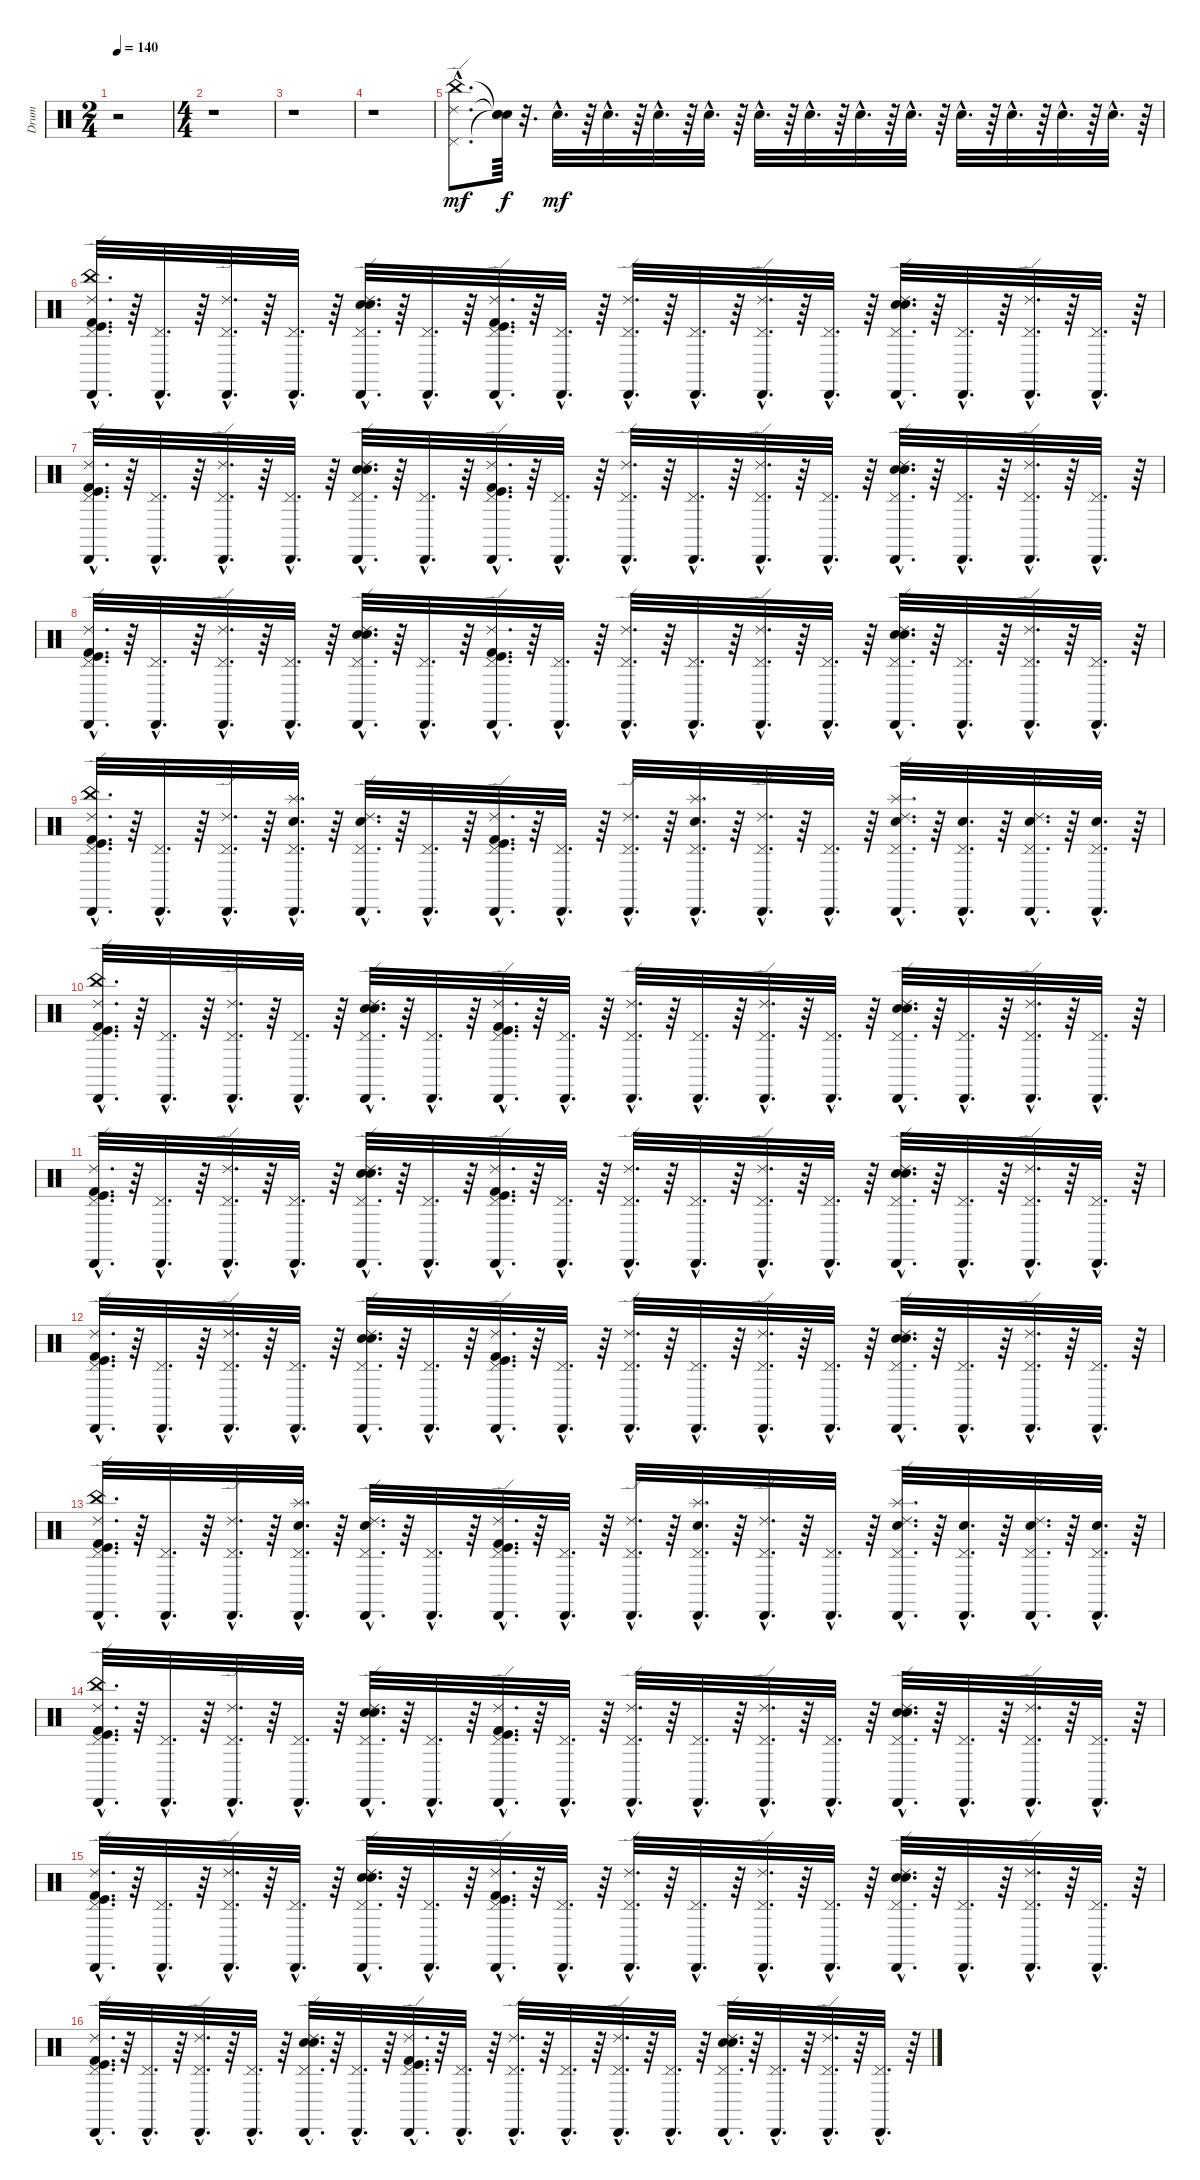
\track ("Drum" "Drum") {instrument percussion}
\staff {score}
\articulation defaults
\ts (2 4)
\tempo 140
\clef neutral
\ks c
r.2{dy mf} |
\ts (4 4)
r.1 |
r.1 |
r.1 |
("China (hit)"{hac} "Ride (edge) 2"{hac} "Pedal Hi-Hat (hit)"{hac}).8{d} ("Snare (hit)"{t} "Snare (hit)"{t} "Snare (hit)"{t}).64{dy f} r.32{d} "Snare (hit) 2"{hac}.32{d dy mf} r.64 "Snare (hit) 2"{hac}.32{d} r.64 "Snare (hit) 2"{hac}.32{d} r.64 "Snare (hit) 2"{hac}.32{d} r.64 "Snare (hit) 2"{hac}.32{d} r.64 "Snare (hit) 2"{hac}.32{d} r.64 "Snare (hit) 2"{hac}.32{d} r.64 "Snare (hit) 2"{hac}.32{d} r.64 "Snare (hit) 2"{hac}.32{d} r.64 "Snare (hit) 2"{hac}.32{d} r.64 "Snare (hit) 2"{hac}.32{d} r.64 "Snare (hit) 2"{hac}.32{d} r.64 |
("Cabasa (hit)"{hac} "Ride (edge) 2"{hac} "Pedal Hi-Hat (hit)"{hac} "Kick (hit)"{hac} "Kick (hit) 2"{hac} "China (hit)"{hac}).32{d} r.64 ("Pedal Hi-Hat (hit)"{hac} "Cabasa (hit)"{hac}).32{d} r.64 ("Ride (edge) 2"{hac} "Pedal Hi-Hat (hit)"{hac} "Cabasa (hit)"{hac}).32{d} r.64 ("Cabasa (hit)"{hac} "Pedal Hi-Hat (hit)"{hac}).32{d} r.64 ("Ride (edge) 2"{hac} "Cabasa (hit)"{hac} "Electric Snare (hit)"{hac} "Snare (hit) 2"{hac} "Pedal Hi-Hat (hit)"{hac}).32{d} r.64 ("Pedal Hi-Hat (hit)"{hac} "Cabasa (hit)"{hac}).32{d} r.64 ("Pedal Hi-Hat (hit)"{hac} "Kick (hit) 2"{hac} "Ride (edge) 2"{hac} "Cabasa (hit)"{hac} "Kick (hit)"{hac}).32{d} r.64 ("Pedal Hi-Hat (hit)"{hac} "Cabasa (hit)"{hac}).32{d} r.64 ("Cabasa (hit)"{hac} "Pedal Hi-Hat (hit)"{hac} "Ride (edge) 2"{hac}).32{d} r.64 ("Cabasa (hit)"{hac} "Pedal Hi-Hat (hit)"{hac}).32{d} r.64 ("Ride (edge) 2"{hac} "Pedal Hi-Hat (hit)"{hac} "Cabasa (hit)"{hac}).32{d} r.64 ("Pedal Hi-Hat (hit)"{hac} "Cabasa (hit)"{hac}).32{d} r.64 ("Cabasa (hit)"{hac} "Ride (edge) 2"{hac} "Snare (hit) 2"{hac} "Electric Snare (hit)"{hac} "Pedal Hi-Hat (hit)"{hac}).32{d} r.64 ("Pedal Hi-Hat (hit)"{hac} "Cabasa (hit)"{hac}).32{d} r.64 ("Ride (edge) 2"{hac} "Pedal Hi-Hat (hit)"{hac} "Cabasa (hit)"{hac}).32{d} r.64 ("Pedal Hi-Hat (hit)"{hac} "Cabasa (hit)"{hac}).32{d} r.64 |
("Pedal Hi-Hat (hit)"{hac} "Cabasa (hit)"{hac} "Ride (edge) 2"{hac} "Kick (hit)"{hac} "Kick (hit) 2"{hac}).32{d} r.64 ("Pedal Hi-Hat (hit)"{hac} "Cabasa (hit)"{hac}).32{d} r.64 ("Pedal Hi-Hat (hit)"{hac} "Cabasa (hit)"{hac} "Ride (edge) 2"{hac}).32{d} r.64 ("Pedal Hi-Hat (hit)"{hac} "Cabasa (hit)"{hac}).32{d} r.64 ("Pedal Hi-Hat (hit)"{hac} "Cabasa (hit)"{hac} "Ride (edge) 2"{hac} "Electric Snare (hit)"{hac} "Snare (hit) 2"{hac}).32{d} r.64 ("Pedal Hi-Hat (hit)"{hac} "Cabasa (hit)"{hac}).32{d} r.64 ("Pedal Hi-Hat (hit)"{hac} "Cabasa (hit)"{hac} "Ride (edge) 2"{hac} "Kick (hit) 2"{hac} "Kick (hit)"{hac}).32{d} r.64 ("Pedal Hi-Hat (hit)"{hac} "Cabasa (hit)"{hac}).32{d} r.64 ("Pedal Hi-Hat (hit)"{hac} "Cabasa (hit)"{hac} "Ride (edge) 2"{hac}).32{d} r.64 ("Pedal Hi-Hat (hit)"{hac} "Cabasa (hit)"{hac}).32{d} r.64 ("Pedal Hi-Hat (hit)"{hac} "Cabasa (hit)"{hac} "Ride (edge) 2"{hac}).32{d} r.64 ("Pedal Hi-Hat (hit)"{hac} "Cabasa (hit)"{hac}).32{d} r.64 ("Pedal Hi-Hat (hit)"{hac} "Cabasa (hit)"{hac} "Ride (edge) 2"{hac} "Snare (hit) 2"{hac} "Electric Snare (hit)"{hac}).32{d} r.64 ("Pedal Hi-Hat (hit)"{hac} "Cabasa (hit)"{hac}).32{d} r.64 ("Pedal Hi-Hat (hit)"{hac} "Cabasa (hit)"{hac} "Ride (edge) 2"{hac}).32{d} r.64 ("Pedal Hi-Hat (hit)"{hac} "Cabasa (hit)"{hac}).32{d} r.64 |
("Kick (hit) 2"{hac} "Kick (hit)"{hac} "Ride (edge) 2"{hac} "Cabasa (hit)"{hac} "Pedal Hi-Hat (hit)"{hac}).32{d} r.64 ("Cabasa (hit)"{hac} "Pedal Hi-Hat (hit)"{hac}).32{d} r.64 ("Ride (edge) 2"{hac} "Cabasa (hit)"{hac} "Pedal Hi-Hat (hit)"{hac}).32{d} r.64 ("Cabasa (hit)"{hac} "Pedal Hi-Hat (hit)"{hac}).32{d} r.64 ("Snare (hit) 2"{hac} "Electric Snare (hit)"{hac} "Ride (edge) 2"{hac} "Cabasa (hit)"{hac} "Pedal Hi-Hat (hit)"{hac}).32{d} r.64 ("Cabasa (hit)"{hac} "Pedal Hi-Hat (hit)"{hac}).32{d} r.64 ("Kick (hit)"{hac} "Kick (hit) 2"{hac} "Ride (edge) 2"{hac} "Cabasa (hit)"{hac} "Pedal Hi-Hat (hit)"{hac}).32{d} r.64 ("Cabasa (hit)"{hac} "Pedal Hi-Hat (hit)"{hac}).32{d} r.64 ("Ride (edge) 2"{hac} "Cabasa (hit)"{hac} "Pedal Hi-Hat (hit)"{hac}).32{d} r.64 ("Cabasa (hit)"{hac} "Pedal Hi-Hat (hit)"{hac}).32{d} r.64 ("Ride (edge) 2"{hac} "Cabasa (hit)"{hac} "Pedal Hi-Hat (hit)"{hac}).32{d} r.64 ("Cabasa (hit)"{hac} "Pedal Hi-Hat (hit)"{hac}).32{d} r.64 ("Electric Snare (hit)"{hac} "Snare (hit) 2"{hac} "Ride (edge) 2"{hac} "Cabasa (hit)"{hac} "Pedal Hi-Hat (hit)"{hac}).32{d} r.64 ("Cabasa (hit)"{hac} "Pedal Hi-Hat (hit)"{hac}).32{d} r.64 ("Ride (edge) 2"{hac} "Cabasa (hit)"{hac} "Pedal Hi-Hat (hit)"{hac}).32{d} r.64 ("Cabasa (hit)"{hac} "Pedal Hi-Hat (hit)"{hac}).32{d} r.64 |
("China (hit)"{hac} "Cabasa (hit)"{hac} "Ride (edge) 2"{hac} "Kick (hit) 2"{hac} "Kick (hit)"{hac} "Pedal Hi-Hat (hit)"{hac}).32{d} r.64 ("Pedal Hi-Hat (hit)"{hac} "Cabasa (hit)"{hac}).32{d} r.64 ("Ride (edge) 2"{hac} "Cabasa (hit)"{hac} "Pedal Hi-Hat (hit)"{hac}).32{d} r.64 ("Splash (hit)"{hac} "Snare (hit) 2"{hac} "Pedal Hi-Hat (hit)"{hac} "Cabasa (hit)"{hac}).32{d} r.64 ("Snare (hit) 2"{hac} "Ride (edge) 2"{hac} "Cabasa (hit)"{hac} "Pedal Hi-Hat (hit)"{hac}).32{d} r.64 ("Cabasa (hit)"{hac} "Pedal Hi-Hat (hit)"{hac}).32{d} r.64 ("Ride (edge) 2"{hac} "Cabasa (hit)"{hac} "Kick (hit)"{hac} "Kick (hit) 2"{hac} "Pedal Hi-Hat (hit)"{hac}).32{d} r.64 ("Pedal Hi-Hat (hit)"{hac} "Cabasa (hit)"{hac}).32{d} r.64 ("Cabasa (hit)"{hac} "Pedal Hi-Hat (hit)"{hac} "Ride (edge) 2"{hac}).32{d} r.64 ("Splash (hit)"{hac} "Snare (hit) 2"{hac} "Pedal Hi-Hat (hit)"{hac} "Cabasa (hit)"{hac}).32{d} r.64 ("Pedal Hi-Hat (hit)"{hac} "Cabasa (hit)"{hac} "Ride (edge) 2"{hac}).32{d} r.64 ("Pedal Hi-Hat (hit)"{hac} "Cabasa (hit)"{hac}).32{d} r.64 ("Splash (hit)"{hac} "Snare (hit) 2"{hac} "Ride (edge) 2"{hac} "Cabasa (hit)"{hac} "Pedal Hi-Hat (hit)"{hac}).32{d} r.64 ("Snare (hit) 2"{hac} "Pedal Hi-Hat (hit)"{hac} "Cabasa (hit)"{hac}).32{d} r.64 ("Snare (hit) 2"{hac} "Ride (edge) 2"{hac} "Cabasa (hit)"{hac} "Pedal Hi-Hat (hit)"{hac}).32{d} r.64 ("Snare (hit) 2"{hac} "Pedal Hi-Hat (hit)"{hac} "Cabasa (hit)"{hac}).32{d} r.64 |
("Cabasa (hit)"{hac} "Pedal Hi-Hat (hit)"{hac} "Kick (hit) 2"{hac} "Ride (edge) 2"{hac} "Kick (hit)"{hac} "China (hit)"{hac}).32{d} r.64 ("Pedal Hi-Hat (hit)"{hac} "Cabasa (hit)"{hac}).32{d} r.64 ("Pedal Hi-Hat (hit)"{hac} "Ride (edge) 2"{hac} "Cabasa (hit)"{hac}).32{d} r.64 ("Pedal Hi-Hat (hit)"{hac} "Cabasa (hit)"{hac}).32{d} r.64 ("Pedal Hi-Hat (hit)"{hac} "Electric Snare (hit)"{hac} "Snare (hit) 2"{hac} "Cabasa (hit)"{hac} "Ride (edge) 2"{hac}).32{d} r.64 ("Pedal Hi-Hat (hit)"{hac} "Cabasa (hit)"{hac}).32{d} r.64 ("Cabasa (hit)"{hac} "Pedal Hi-Hat (hit)"{hac} "Ride (edge) 2"{hac} "Kick (hit)"{hac} "Kick (hit) 2"{hac}).32{d} r.64 ("Cabasa (hit)"{hac} "Pedal Hi-Hat (hit)"{hac}).32{d} r.64 ("Cabasa (hit)"{hac} "Ride (edge) 2"{hac} "Pedal Hi-Hat (hit)"{hac}).32{d} r.64 ("Pedal Hi-Hat (hit)"{hac} "Cabasa (hit)"{hac}).32{d} r.64 ("Cabasa (hit)"{hac} "Ride (edge) 2"{hac} "Pedal Hi-Hat (hit)"{hac}).32{d} r.64 ("Cabasa (hit)"{hac} "Pedal Hi-Hat (hit)"{hac}).32{d} r.64 ("Cabasa (hit)"{hac} "Ride (edge) 2"{hac} "Electric Snare (hit)"{hac} "Snare (hit) 2"{hac} "Pedal Hi-Hat (hit)"{hac}).32{d} r.64 ("Cabasa (hit)"{hac} "Pedal Hi-Hat (hit)"{hac}).32{d} r.64 ("Ride (edge) 2"{hac} "Pedal Hi-Hat (hit)"{hac} "Cabasa (hit)"{hac}).32{d} r.64 ("Cabasa (hit)"{hac} "Pedal Hi-Hat (hit)"{hac}).32{d} r.64 |
("Kick (hit) 2"{hac} "Kick (hit)"{hac} "Ride (edge) 2"{hac} "Cabasa (hit)"{hac} "Pedal Hi-Hat (hit)"{hac}).32{d} r.64 ("Cabasa (hit)"{hac} "Pedal Hi-Hat (hit)"{hac}).32{d} r.64 ("Ride (edge) 2"{hac} "Cabasa (hit)"{hac} "Pedal Hi-Hat (hit)"{hac}).32{d} r.64 ("Cabasa (hit)"{hac} "Pedal Hi-Hat (hit)"{hac}).32{d} r.64 ("Snare (hit) 2"{hac} "Electric Snare (hit)"{hac} "Ride (edge) 2"{hac} "Cabasa (hit)"{hac} "Pedal Hi-Hat (hit)"{hac}).32{d} r.64 ("Cabasa (hit)"{hac} "Pedal Hi-Hat (hit)"{hac}).32{d} r.64 ("Kick (hit)"{hac} "Kick (hit) 2"{hac} "Ride (edge) 2"{hac} "Cabasa (hit)"{hac} "Pedal Hi-Hat (hit)"{hac}).32{d} r.64 ("Cabasa (hit)"{hac} "Pedal Hi-Hat (hit)"{hac}).32{d} r.64 ("Ride (edge) 2"{hac} "Cabasa (hit)"{hac} "Pedal Hi-Hat (hit)"{hac}).32{d} r.64 ("Cabasa (hit)"{hac} "Pedal Hi-Hat (hit)"{hac}).32{d} r.64 ("Ride (edge) 2"{hac} "Cabasa (hit)"{hac} "Pedal Hi-Hat (hit)"{hac}).32{d} r.64 ("Cabasa (hit)"{hac} "Pedal Hi-Hat (hit)"{hac}).32{d} r.64 ("Electric Snare (hit)"{hac} "Snare (hit) 2"{hac} "Ride (edge) 2"{hac} "Cabasa (hit)"{hac} "Pedal Hi-Hat (hit)"{hac}).32{d} r.64 ("Cabasa (hit)"{hac} "Pedal Hi-Hat (hit)"{hac}).32{d} r.64 ("Ride (edge) 2"{hac} "Cabasa (hit)"{hac} "Pedal Hi-Hat (hit)"{hac}).32{d} r.64 ("Cabasa (hit)"{hac} "Pedal Hi-Hat (hit)"{hac}).32{d} r.64 |
("Pedal Hi-Hat (hit)"{hac} "Cabasa (hit)"{hac} "Ride (edge) 2"{hac} "Kick (hit)"{hac} "Kick (hit) 2"{hac}).32{d} r.64 ("Pedal Hi-Hat (hit)"{hac} "Cabasa (hit)"{hac}).32{d} r.64 ("Pedal Hi-Hat (hit)"{hac} "Cabasa (hit)"{hac} "Ride (edge) 2"{hac}).32{d} r.64 ("Pedal Hi-Hat (hit)"{hac} "Cabasa (hit)"{hac}).32{d} r.64 ("Pedal Hi-Hat (hit)"{hac} "Cabasa (hit)"{hac} "Ride (edge) 2"{hac} "Electric Snare (hit)"{hac} "Snare (hit) 2"{hac}).32{d} r.64 ("Pedal Hi-Hat (hit)"{hac} "Cabasa (hit)"{hac}).32{d} r.64 ("Pedal Hi-Hat (hit)"{hac} "Cabasa (hit)"{hac} "Ride (edge) 2"{hac} "Kick (hit) 2"{hac} "Kick (hit)"{hac}).32{d} r.64 ("Pedal Hi-Hat (hit)"{hac} "Cabasa (hit)"{hac}).32{d} r.64 ("Pedal Hi-Hat (hit)"{hac} "Cabasa (hit)"{hac} "Ride (edge) 2"{hac}).32{d} r.64 ("Pedal Hi-Hat (hit)"{hac} "Cabasa (hit)"{hac}).32{d} r.64 ("Pedal Hi-Hat (hit)"{hac} "Cabasa (hit)"{hac} "Ride (edge) 2"{hac}).32{d} r.64 ("Pedal Hi-Hat (hit)"{hac} "Cabasa (hit)"{hac}).32{d} r.64 ("Pedal Hi-Hat (hit)"{hac} "Cabasa (hit)"{hac} "Ride (edge) 2"{hac} "Snare (hit) 2"{hac} "Electric Snare (hit)"{hac}).32{d} r.64 ("Pedal Hi-Hat (hit)"{hac} "Cabasa (hit)"{hac}).32{d} r.64 ("Pedal Hi-Hat (hit)"{hac} "Cabasa (hit)"{hac} "Ride (edge) 2"{hac}).32{d} r.64 ("Pedal Hi-Hat (hit)"{hac} "Cabasa (hit)"{hac}).32{d} r.64 |
("Pedal Hi-Hat (hit)"{hac} "Kick (hit)"{hac} "Kick (hit) 2"{hac} "Ride (edge) 2"{hac} "Cabasa (hit)"{hac} "China (hit)"{hac}).32{d} r.64 ("Cabasa (hit)"{hac} "Pedal Hi-Hat (hit)"{hac}).32{d} r.64 ("Pedal Hi-Hat (hit)"{hac} "Cabasa (hit)"{hac} "Ride (edge) 2"{hac}).32{d} r.64 ("Cabasa (hit)"{hac} "Pedal Hi-Hat (hit)"{hac} "Snare (hit) 2"{hac} "Splash (hit)"{hac}).32{d} r.64 ("Pedal Hi-Hat (hit)"{hac} "Cabasa (hit)"{hac} "Ride (edge) 2"{hac} "Snare (hit) 2"{hac}).32{d} r.64 ("Pedal Hi-Hat (hit)"{hac} "Cabasa (hit)"{hac}).32{d} r.64 ("Pedal Hi-Hat (hit)"{hac} "Kick (hit) 2"{hac} "Kick (hit)"{hac} "Cabasa (hit)"{hac} "Ride (edge) 2"{hac}).32{d} r.64 ("Cabasa (hit)"{hac} "Pedal Hi-Hat (hit)"{hac}).32{d} r.64 ("Ride (edge) 2"{hac} "Pedal Hi-Hat (hit)"{hac} "Cabasa (hit)"{hac}).32{d} r.64 ("Cabasa (hit)"{hac} "Pedal Hi-Hat (hit)"{hac} "Snare (hit) 2"{hac} "Splash (hit)"{hac}).32{d} r.64 ("Ride (edge) 2"{hac} "Cabasa (hit)"{hac} "Pedal Hi-Hat (hit)"{hac}).32{d} r.64 ("Cabasa (hit)"{hac} "Pedal Hi-Hat (hit)"{hac}).32{d} r.64 ("Pedal Hi-Hat (hit)"{hac} "Cabasa (hit)"{hac} "Ride (edge) 2"{hac} "Snare (hit) 2"{hac} "Splash (hit)"{hac}).32{d} r.64 ("Cabasa (hit)"{hac} "Pedal Hi-Hat (hit)"{hac} "Snare (hit) 2"{hac}).32{d} r.64 ("Pedal Hi-Hat (hit)"{hac} "Cabasa (hit)"{hac} "Ride (edge) 2"{hac} "Snare (hit) 2"{hac}).32{d} r.64 ("Cabasa (hit)"{hac} "Pedal Hi-Hat (hit)"{hac} "Snare (hit) 2"{hac}).32{d} r.64 |
("China (hit)"{hac} "Kick (hit) 2"{hac} "Kick (hit)"{hac} "Ride (edge) 2"{hac} "Cabasa (hit)"{hac} "Pedal Hi-Hat (hit)"{hac}).32{d} r.64 ("Cabasa (hit)"{hac} "Pedal Hi-Hat (hit)"{hac}).32{d} r.64 ("Ride (edge) 2"{hac} "Cabasa (hit)"{hac} "Pedal Hi-Hat (hit)"{hac}).32{d} r.64 ("Cabasa (hit)"{hac} "Pedal Hi-Hat (hit)"{hac}).32{d} r.64 ("Snare (hit) 2"{hac} "Electric Snare (hit)"{hac} "Ride (edge) 2"{hac} "Cabasa (hit)"{hac} "Pedal Hi-Hat (hit)"{hac}).32{d} r.64 ("Cabasa (hit)"{hac} "Pedal Hi-Hat (hit)"{hac}).32{d} r.64 ("Kick (hit)"{hac} "Kick (hit) 2"{hac} "Ride (edge) 2"{hac} "Cabasa (hit)"{hac} "Pedal Hi-Hat (hit)"{hac}).32{d} r.64 ("Cabasa (hit)"{hac} "Pedal Hi-Hat (hit)"{hac}).32{d} r.64 ("Ride (edge) 2"{hac} "Cabasa (hit)"{hac} "Pedal Hi-Hat (hit)"{hac}).32{d} r.64 ("Cabasa (hit)"{hac} "Pedal Hi-Hat (hit)"{hac}).32{d} r.64 ("Ride (edge) 2"{hac} "Cabasa (hit)"{hac} "Pedal Hi-Hat (hit)"{hac}).32{d} r.64 ("Cabasa (hit)"{hac} "Pedal Hi-Hat (hit)"{hac}).32{d} r.64 ("Electric Snare (hit)"{hac} "Snare (hit) 2"{hac} "Ride (edge) 2"{hac} "Cabasa (hit)"{hac} "Pedal Hi-Hat (hit)"{hac}).32{d} r.64 ("Cabasa (hit)"{hac} "Pedal Hi-Hat (hit)"{hac}).32{d} r.64 ("Ride (edge) 2"{hac} "Cabasa (hit)"{hac} "Pedal Hi-Hat (hit)"{hac}).32{d} r.64 ("Cabasa (hit)"{hac} "Pedal Hi-Hat (hit)"{hac}).32{d} r.64 |
("Pedal Hi-Hat (hit)"{hac} "Cabasa (hit)"{hac} "Ride (edge) 2"{hac} "Kick (hit)"{hac} "Kick (hit) 2"{hac}).32{d} r.64 ("Pedal Hi-Hat (hit)"{hac} "Cabasa (hit)"{hac}).32{d} r.64 ("Pedal Hi-Hat (hit)"{hac} "Cabasa (hit)"{hac} "Ride (edge) 2"{hac}).32{d} r.64 ("Pedal Hi-Hat (hit)"{hac} "Cabasa (hit)"{hac}).32{d} r.64 ("Pedal Hi-Hat (hit)"{hac} "Cabasa (hit)"{hac} "Ride (edge) 2"{hac} "Electric Snare (hit)"{hac} "Snare (hit) 2"{hac}).32{d} r.64 ("Pedal Hi-Hat (hit)"{hac} "Cabasa (hit)"{hac}).32{d} r.64 ("Pedal Hi-Hat (hit)"{hac} "Cabasa (hit)"{hac} "Ride (edge) 2"{hac} "Kick (hit) 2"{hac} "Kick (hit)"{hac}).32{d} r.64 ("Pedal Hi-Hat (hit)"{hac} "Cabasa (hit)"{hac}).32{d} r.64 ("Pedal Hi-Hat (hit)"{hac} "Cabasa (hit)"{hac} "Ride (edge) 2"{hac}).32{d} r.64 ("Pedal Hi-Hat (hit)"{hac} "Cabasa (hit)"{hac}).32{d} r.64 ("Pedal Hi-Hat (hit)"{hac} "Cabasa (hit)"{hac} "Ride (edge) 2"{hac}).32{d} r.64 ("Pedal Hi-Hat (hit)"{hac} "Cabasa (hit)"{hac}).32{d} r.64 ("Pedal Hi-Hat (hit)"{hac} "Cabasa (hit)"{hac} "Ride (edge) 2"{hac} "Snare (hit) 2"{hac} "Electric Snare (hit)"{hac}).32{d} r.64 ("Pedal Hi-Hat (hit)"{hac} "Cabasa (hit)"{hac}).32{d} r.64 ("Pedal Hi-Hat (hit)"{hac} "Cabasa (hit)"{hac} "Ride (edge) 2"{hac}).32{d} r.64 ("Pedal Hi-Hat (hit)"{hac} "Cabasa (hit)"{hac}).32{d} r.64 |
("Kick (hit) 2"{hac} "Kick (hit)"{hac} "Ride (edge) 2"{hac} "Cabasa (hit)"{hac} "Pedal Hi-Hat (hit)"{hac}).32{d} r.64 ("Cabasa (hit)"{hac} "Pedal Hi-Hat (hit)"{hac}).32{d} r.64 ("Ride (edge) 2"{hac} "Cabasa (hit)"{hac} "Pedal Hi-Hat (hit)"{hac}).32{d} r.64 ("Cabasa (hit)"{hac} "Pedal Hi-Hat (hit)"{hac}).32{d} r.64 ("Snare (hit) 2"{hac} "Electric Snare (hit)"{hac} "Ride (edge) 2"{hac} "Cabasa (hit)"{hac} "Pedal Hi-Hat (hit)"{hac}).32{d} r.64 ("Cabasa (hit)"{hac} "Pedal Hi-Hat (hit)"{hac}).32{d} r.64 ("Kick (hit)"{hac} "Kick (hit) 2"{hac} "Ride (edge) 2"{hac} "Cabasa (hit)"{hac} "Pedal Hi-Hat (hit)"{hac}).32{d} r.64 ("Cabasa (hit)"{hac} "Pedal Hi-Hat (hit)"{hac}).32{d} r.64 ("Ride (edge) 2"{hac} "Cabasa (hit)"{hac} "Pedal Hi-Hat (hit)"{hac}).32{d} r.64 ("Cabasa (hit)"{hac} "Pedal Hi-Hat (hit)"{hac}).32{d} r.64 ("Ride (edge) 2"{hac} "Cabasa (hit)"{hac} "Pedal Hi-Hat (hit)"{hac}).32{d} r.64 ("Cabasa (hit)"{hac} "Pedal Hi-Hat (hit)"{hac}).32{d} r.64 ("Electric Snare (hit)"{hac} "Snare (hit) 2"{hac} "Ride (edge) 2"{hac} "Cabasa (hit)"{hac} "Pedal Hi-Hat (hit)"{hac}).32{d} r.64 ("Cabasa (hit)"{hac} "Pedal Hi-Hat (hit)"{hac}).32{d} r.64 ("Ride (edge) 2"{hac} "Cabasa (hit)"{hac} "Pedal Hi-Hat (hit)"{hac}).32{d} r.64 ("Cabasa (hit)"{hac} "Pedal Hi-Hat (hit)"{hac}).32{d} r.64
